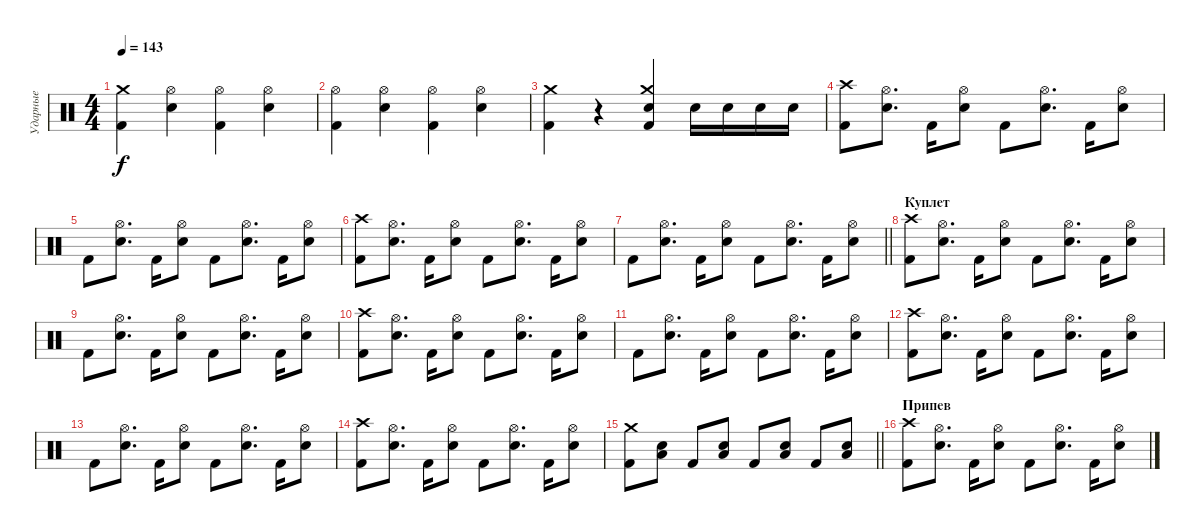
\track ("Ударные" "Ударные") {instrument percussion}
\staff {score}
\articulation defaults
\ts (4 4)
\tempo 143
\clef neutral
\ks c
("Kick (hit) 2" "Crash medium (hit)").4{dy f} ("Hi-Hat (open)" "Snare (hit) 2").4 ("Hi-Hat (open)" "Kick (hit) 2").4 ("Hi-Hat (open)" "Snare (hit) 2").4 |
("Kick (hit) 2" "Hi-Hat (open)").4 ("Hi-Hat (open)" "Snare (hit) 2").4 ("Hi-Hat (open)" "Kick (hit) 2").4 ("Hi-Hat (open)" "Snare (hit) 2").4 |
("Kick (hit) 2" "Crash medium (hit)").4 r.4 ("Snare (hit) 2" "Kick (hit) 2" "Crash medium (hit)").4 "Snare (hit) 2".16 "Snare (hit) 2".16 "Snare (hit) 2".16 "Snare (hit) 2".16 |
("Crash high (hit)" "Kick (hit) 2").8 ("Hi-Hat (open)" "Electric Snare (hit)").8{d} "Kick (hit) 2".16 ("Hi-Hat (open)" "Electric Snare (hit)").8 "Kick (hit) 2".8 ("Hi-Hat (open)" "Electric Snare (hit)").8{d} "Kick (hit) 2".16 ("Hi-Hat (open)" "Electric Snare (hit)").8 |
"Kick (hit) 2".8 ("Hi-Hat (open)" "Electric Snare (hit)").8{d} "Kick (hit) 2".16 ("Hi-Hat (open)" "Electric Snare (hit)").8 "Kick (hit) 2".8 ("Hi-Hat (open)" "Electric Snare (hit)").8{d} "Kick (hit) 2".16 ("Hi-Hat (open)" "Electric Snare (hit)").8 |
("Crash high (hit)" "Kick (hit) 2").8 ("Hi-Hat (open)" "Electric Snare (hit)").8{d} "Kick (hit) 2".16 ("Hi-Hat (open)" "Electric Snare (hit)").8 "Kick (hit) 2".8 ("Hi-Hat (open)" "Electric Snare (hit)").8{d} "Kick (hit) 2".16 ("Hi-Hat (open)" "Electric Snare (hit)").8 |
\barLineRight lightlight "Kick (hit) 2".8
("Hi-Hat (open)" "Electric Snare (hit)").8{d} "Kick (hit) 2".16 ("Hi-Hat (open)" "Electric Snare (hit)").8 "Kick (hit) 2".8 ("Hi-Hat (open)" "Electric Snare (hit)").8{d} "Kick (hit) 2".16 ("Hi-Hat (open)" "Electric Snare (hit)").8 |
\section ("" "Куплет")
("Crash high (hit)" "Kick (hit) 2").8 ("Hi-Hat (open)" "Electric Snare (hit)").8{d} "Kick (hit) 2".16 ("Hi-Hat (open)" "Electric Snare (hit)").8 "Kick (hit) 2".8 ("Hi-Hat (open)" "Electric Snare (hit)").8{d} "Kick (hit) 2".16 ("Hi-Hat (open)" "Electric Snare (hit)").8 |
"Kick (hit) 2".8 ("Hi-Hat (open)" "Electric Snare (hit)").8{d} "Kick (hit) 2".16 ("Hi-Hat (open)" "Electric Snare (hit)").8 "Kick (hit) 2".8 ("Hi-Hat (open)" "Electric Snare (hit)").8{d} "Kick (hit) 2".16 ("Hi-Hat (open)" "Electric Snare (hit)").8 |
("Crash high (hit)" "Kick (hit) 2").8 ("Hi-Hat (open)" "Electric Snare (hit)").8{d} "Kick (hit) 2".16 ("Hi-Hat (open)" "Electric Snare (hit)").8 "Kick (hit) 2".8 ("Hi-Hat (open)" "Electric Snare (hit)").8{d} "Kick (hit) 2".16 ("Hi-Hat (open)" "Electric Snare (hit)").8 |
"Kick (hit) 2".8 ("Hi-Hat (open)" "Electric Snare (hit)").8{d} "Kick (hit) 2".16 ("Hi-Hat (open)" "Electric Snare (hit)").8 "Kick (hit) 2".8 ("Hi-Hat (open)" "Electric Snare (hit)").8{d} "Kick (hit) 2".16 ("Hi-Hat (open)" "Electric Snare (hit)").8 |
("Crash high (hit)" "Kick (hit) 2").8 ("Hi-Hat (open)" "Electric Snare (hit)").8{d} "Kick (hit) 2".16 ("Hi-Hat (open)" "Electric Snare (hit)").8 "Kick (hit) 2".8 ("Hi-Hat (open)" "Electric Snare (hit)").8{d} "Kick (hit) 2".16 ("Hi-Hat (open)" "Electric Snare (hit)").8 |
"Kick (hit) 2".8 ("Hi-Hat (open)" "Electric Snare (hit)").8{d} "Kick (hit) 2".16 ("Hi-Hat (open)" "Electric Snare (hit)").8 "Kick (hit) 2".8 ("Hi-Hat (open)" "Electric Snare (hit)").8{d} "Kick (hit) 2".16 ("Hi-Hat (open)" "Electric Snare (hit)").8 |
("Crash high (hit)" "Kick (hit) 2").8 ("Hi-Hat (open)" "Electric Snare (hit)").8{d} "Kick (hit) 2".16 ("Hi-Hat (open)" "Electric Snare (hit)").8 "Kick (hit) 2".8 ("Hi-Hat (open)" "Electric Snare (hit)").8{d} "Kick (hit) 2".16 ("Hi-Hat (open)" "Electric Snare (hit)").8 |
\barLineRight lightlight
("Crash medium (hit)" "Kick (hit) 2").8 ("Snare (hit) 2" "Low Floor Tom (hit)").8 "Kick (hit) 2".8 ("Low Floor Tom (hit)" "Snare (hit) 2").8 "Kick (hit) 2".8 ("Snare (hit) 2" "Low Floor Tom (hit)").8 "Kick (hit) 2".8 ("Snare (hit) 2" "Low Floor Tom (hit)").8 |
\section ("" "Припев")
("Crash high (hit)" "Kick (hit) 2").8 ("Hi-Hat (open)" "Electric Snare (hit)").8{d} "Kick (hit) 2".16 ("Hi-Hat (open)" "Electric Snare (hit)").8 "Kick (hit) 2".8 ("Hi-Hat (open)" "Electric Snare (hit)").8{d} "Kick (hit) 2".16 ("Hi-Hat (open)" "Electric Snare (hit)").8
